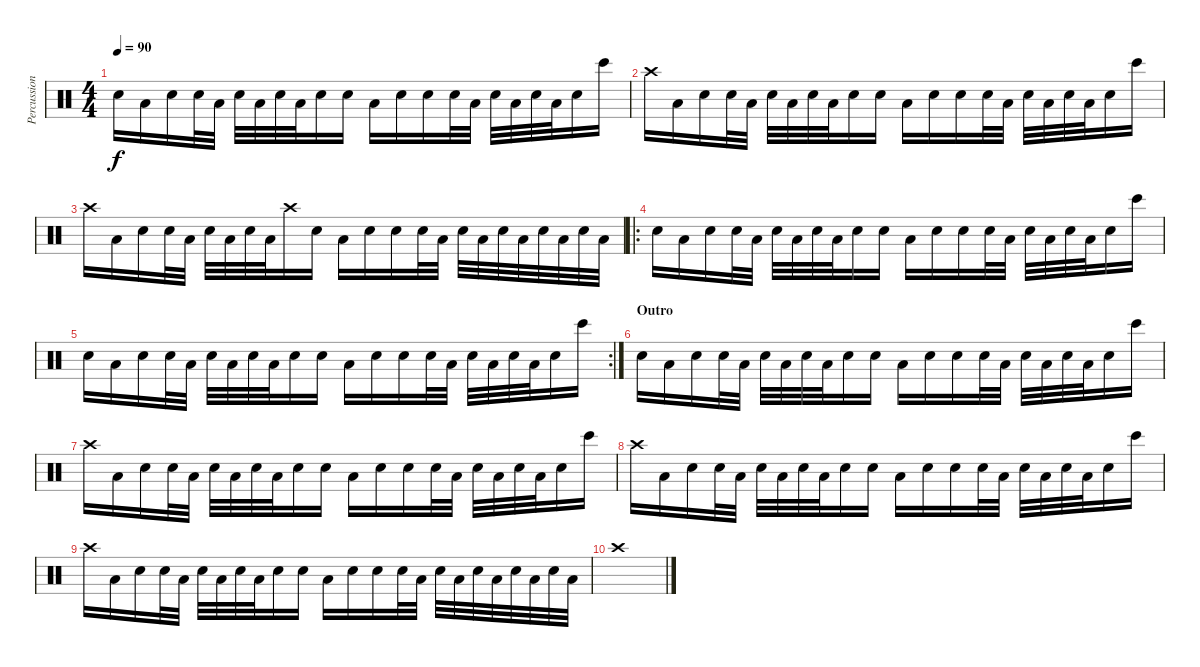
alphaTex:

\track ("Percussion" "Percussion") {instrument percussion}
\staff {score}
\articulation defaults
\ts (4 4)
\tempo 90
\clef neutral
\ks c "Electric Snare (hit)".16{dy f} "Low Floor Tom (hit)".16 "Hand Clap (hit)".16 "Electric Snare (hit)".32 "Low Floor Tom (hit)".32 "Electric Snare (hit)".32 "Low Floor Tom (hit)".32 "Electric Snare (hit)".32 "Low Floor Tom (hit)".32 "Hand Clap (hit)".16 "Electric Snare (hit)".16 "Low Floor Tom (hit)".16 "Electric Snare (hit)".16 "Hand Clap (hit)".16 "Electric Snare (hit)".32 "Low Floor Tom (hit)".32 "Electric Snare (hit)".32 "Low Floor Tom (hit)".32 "Electric Snare (hit)".32 "Low Floor Tom (hit)".32 "Hand Clap (hit)".16 "Bongo High (hit)".16
|
"Crash high (hit)".16 "Low Floor Tom (hit)".16 "Hand Clap (hit)".16 "Electric Snare (hit)".32 "Low Floor Tom (hit)".32 "Electric Snare (hit)".32 "Low Floor Tom (hit)".32 "Electric Snare (hit)".32 "Low Floor Tom (hit)".32 "Hand Clap (hit)".16 "Electric Snare (hit)".16 "Low Floor Tom (hit)".16 "Electric Snare (hit)".16 "Hand Clap (hit)".16 "Electric Snare (hit)".32 "Low Floor Tom (hit)".32 "Electric Snare (hit)".32 "Low Floor Tom (hit)".32 "Electric Snare (hit)".32 "Low Floor Tom (hit)".32 "Hand Clap (hit)".16 "Bongo High (hit)".16 |
"Crash high (hit)".16 "Low Floor Tom (hit)".16 "Hand Clap (hit)".16 "Electric Snare (hit)".32 "Low Floor Tom (hit)".32 "Electric Snare (hit)".32 "Low Floor Tom (hit)".32 "Electric Snare (hit)".32 "Low Floor Tom (hit)".32 "Crash high (hit)".16 "Electric Snare (hit)".16 "Low Floor Tom (hit)".16 "Electric Snare (hit)".16 "Hand Clap (hit)".16 "Electric Snare (hit)".32 "Low Floor Tom (hit)".32 "Electric Snare (hit)".32 "Low Floor Tom (hit)".32 "Electric Snare (hit)".32 "Low Floor Tom (hit)".32 "Electric Snare (hit)".32 "Low Floor Tom (hit)".32 "Electric Snare (hit)".32 "Low Floor Tom (hit)".32 |
\ro "Electric Snare (hit)".16 "Low Floor Tom (hit)".16 "Hand Clap (hit)".16 "Electric Snare (hit)".32 "Low Floor Tom (hit)".32 "Electric Snare (hit)".32 "Low Floor Tom (hit)".32 "Electric Snare (hit)".32 "Low Floor Tom (hit)".32 "Hand Clap (hit)".16 "Electric Snare (hit)".16 "Low Floor Tom (hit)".16 "Electric Snare (hit)".16 "Hand Clap (hit)".16 "Electric Snare (hit)".32 "Low Floor Tom (hit)".32 "Electric Snare (hit)".32 "Low Floor Tom (hit)".32 "Electric Snare (hit)".32 "Low Floor Tom (hit)".32 "Hand Clap (hit)".16 "Bongo High (hit)".16
|
\rc 2 "Electric Snare (hit)".16 "Low Floor Tom (hit)".16 "Hand Clap (hit)".16 "Electric Snare (hit)".32 "Low Floor Tom (hit)".32 "Electric Snare (hit)".32 "Low Floor Tom (hit)".32 "Electric Snare (hit)".32 "Low Floor Tom (hit)".32 "Hand Clap (hit)".16 "Electric Snare (hit)".16 "Low Floor Tom (hit)".16 "Electric Snare (hit)".16 "Hand Clap (hit)".16 "Electric Snare (hit)".32 "Low Floor Tom (hit)".32 "Electric Snare (hit)".32 "Low Floor Tom (hit)".32 "Electric Snare (hit)".32 "Low Floor Tom (hit)".32 "Hand Clap (hit)".16 "Bongo High (hit)".16
|
\section ("" "Outro")
"Electric Snare (hit)".16 "Low Floor Tom (hit)".16 "Hand Clap (hit)".16 "Electric Snare (hit)".32 "Low Floor Tom (hit)".32 "Electric Snare (hit)".32 "Low Floor Tom (hit)".32 "Electric Snare (hit)".32 "Low Floor Tom (hit)".32 "Hand Clap (hit)".16 "Electric Snare (hit)".16 "Low Floor Tom (hit)".16 "Electric Snare (hit)".16 "Hand Clap (hit)".16 "Electric Snare (hit)".32 "Low Floor Tom (hit)".32 "Electric Snare (hit)".32 "Low Floor Tom (hit)".32 "Electric Snare (hit)".32 "Low Floor Tom (hit)".32 "Hand Clap (hit)".16 "Bongo High (hit)".16 |
"Crash high (hit)".16 "Low Floor Tom (hit)".16 "Hand Clap (hit)".16 "Electric Snare (hit)".32 "Low Floor Tom (hit)".32 "Electric Snare (hit)".32 "Low Floor Tom (hit)".32 "Electric Snare (hit)".32 "Low Floor Tom (hit)".32 "Hand Clap (hit)".16 "Electric Snare (hit)".16 "Low Floor Tom (hit)".16 "Electric Snare (hit)".16 "Hand Clap (hit)".16 "Electric Snare (hit)".32 "Low Floor Tom (hit)".32 "Electric Snare (hit)".32 "Low Floor Tom (hit)".32 "Electric Snare (hit)".32 "Low Floor Tom (hit)".32 "Hand Clap (hit)".16 "Bongo High (hit)".16 |
"Crash high (hit)".16 "Low Floor Tom (hit)".16 "Hand Clap (hit)".16 "Electric Snare (hit)".32 "Low Floor Tom (hit)".32 "Electric Snare (hit)".32 "Low Floor Tom (hit)".32 "Electric Snare (hit)".32 "Low Floor Tom (hit)".32 "Hand Clap (hit)".16 "Electric Snare (hit)".16 "Low Floor Tom (hit)".16 "Electric Snare (hit)".16 "Hand Clap (hit)".16 "Electric Snare (hit)".32 "Low Floor Tom (hit)".32 "Electric Snare (hit)".32 "Low Floor Tom (hit)".32 "Electric Snare (hit)".32 "Low Floor Tom (hit)".32 "Hand Clap (hit)".16 "Bongo High (hit)".16 |
"Crash high (hit)".16 "Low Floor Tom (hit)".16 "Hand Clap (hit)".16 "Electric Snare (hit)".32 "Low Floor Tom (hit)".32 "Electric Snare (hit)".32 "Low Floor Tom (hit)".32 "Electric Snare (hit)".32 "Low Floor Tom (hit)".32 "Hand Clap (hit)".16 "Electric Snare (hit)".16 "Low Floor Tom (hit)".16 "Electric Snare (hit)".16 "Hand Clap (hit)".16 "Electric Snare (hit)".32 "Low Floor Tom (hit)".32 "Electric Snare (hit)".32 "Low Floor Tom (hit)".32 "Electric Snare (hit)".32 "Low Floor Tom (hit)".32 "Electric Snare (hit)".32 "Low Floor Tom (hit)".32 "Electric Snare (hit)".32 "Low Floor Tom (hit)".32 |
"Crash high (hit)".1
